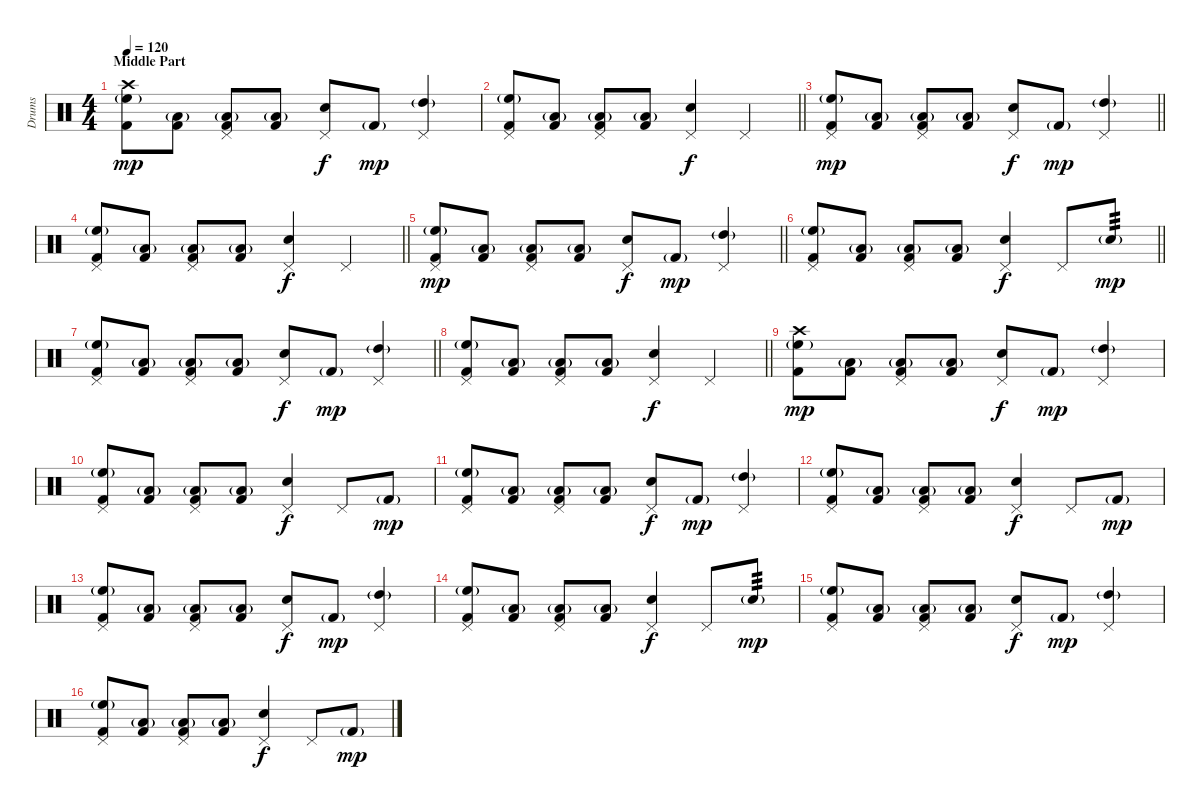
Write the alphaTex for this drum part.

\track ("Drums" "Drums") {instrument percussion}
\staff {score}
\articulation defaults
\ts (4 4)
\section ("" "Middle Part")
\tempo 120
\clef neutral
\ks c
("Crash high (hit)" "High Floor Tom (hit)"{g} "Kick (hit) 2").8{dy mp} ("Low Tom (hit)"{g} "Kick (hit) 2").8 ("Pedal Hi-Hat (hit)" "Low Tom (hit)"{g} "Kick (hit) 2").8 ("Low Tom (hit)"{g} "Kick (hit) 2").8 ("Pedal Hi-Hat (hit)" "Electric Snare (hit)").8{dy f} "Kick (hit) 2"{g}.8{dy mp} ("Pedal Hi-Hat (hit)" "High Tom (hit)"{g}).4 |
\barLineRight lightlight
("Pedal Hi-Hat (hit)" "High Floor Tom (hit)"{g} "Kick (hit) 2").8 ("Low Tom (hit)"{g} "Kick (hit) 2").8 ("Pedal Hi-Hat (hit)" "Low Tom (hit)"{g} "Kick (hit) 2").8 ("Low Tom (hit)"{g} "Kick (hit) 2").8 ("Pedal Hi-Hat (hit)" "Electric Snare (hit)").4{dy f} "Pedal Hi-Hat (hit)".4 |
\barLineRight lightlight
("Pedal Hi-Hat (hit)" "High Floor Tom (hit)"{g} "Kick (hit) 2").8{dy mp} ("Low Tom (hit)"{g} "Kick (hit) 2").8 ("Pedal Hi-Hat (hit)" "Low Tom (hit)"{g} "Kick (hit) 2").8 ("Low Tom (hit)"{g} "Kick (hit) 2").8 ("Pedal Hi-Hat (hit)" "Electric Snare (hit)").8{dy f} "Kick (hit) 2"{g}.8{dy mp} ("Pedal Hi-Hat (hit)" "High Tom (hit)"{g}).4 |
\barLineRight lightlight
("Pedal Hi-Hat (hit)" "High Floor Tom (hit)"{g} "Kick (hit) 2").8 ("Low Tom (hit)"{g} "Kick (hit) 2").8 ("Pedal Hi-Hat (hit)" "Low Tom (hit)"{g} "Kick (hit) 2").8 ("Low Tom (hit)"{g} "Kick (hit) 2").8 ("Pedal Hi-Hat (hit)" "Electric Snare (hit)").4{dy f} "Pedal Hi-Hat (hit)".4 |
\barLineRight lightlight
("Pedal Hi-Hat (hit)" "High Floor Tom (hit)"{g} "Kick (hit) 2").8{dy mp} ("Low Tom (hit)"{g} "Kick (hit) 2").8 ("Pedal Hi-Hat (hit)" "Low Tom (hit)"{g} "Kick (hit) 2").8 ("Low Tom (hit)"{g} "Kick (hit) 2").8 ("Pedal Hi-Hat (hit)" "Electric Snare (hit)").8{dy f} "Kick (hit) 2"{g}.8{dy mp} ("Pedal Hi-Hat (hit)" "High Tom (hit)"{g}).4 |
\barLineRight lightlight
("Pedal Hi-Hat (hit)" "High Floor Tom (hit)"{g} "Kick (hit) 2").8 ("Low Tom (hit)"{g} "Kick (hit) 2").8 ("Pedal Hi-Hat (hit)" "Low Tom (hit)"{g} "Kick (hit) 2").8 ("Low Tom (hit)"{g} "Kick (hit) 2").8 ("Pedal Hi-Hat (hit)" "Electric Snare (hit)").4{dy f} "Pedal Hi-Hat (hit)".8 "Electric Snare (hit)"{g}.8{tp 3 dy mp} |
\barLineRight lightlight
("Pedal Hi-Hat (hit)" "High Floor Tom (hit)"{g} "Kick (hit) 2").8 ("Low Tom (hit)"{g} "Kick (hit) 2").8 ("Pedal Hi-Hat (hit)" "Low Tom (hit)"{g} "Kick (hit) 2").8 ("Low Tom (hit)"{g} "Kick (hit) 2").8 ("Pedal Hi-Hat (hit)" "Electric Snare (hit)").8{dy f} "Kick (hit) 2"{g}.8{dy mp} ("Pedal Hi-Hat (hit)" "High Tom (hit)"{g}).4 |
\barLineRight lightlight
("Pedal Hi-Hat (hit)" "High Floor Tom (hit)"{g} "Kick (hit) 2").8 ("Low Tom (hit)"{g} "Kick (hit) 2").8 ("Pedal Hi-Hat (hit)" "Low Tom (hit)"{g} "Kick (hit) 2").8 ("Low Tom (hit)"{g} "Kick (hit) 2").8 ("Pedal Hi-Hat (hit)" "Electric Snare (hit)").4{dy f} "Pedal Hi-Hat (hit)".4 |
("Crash high (hit)" "High Floor Tom (hit)"{g} "Kick (hit) 2").8{dy mp} ("Low Tom (hit)"{g} "Kick (hit) 2").8 ("Pedal Hi-Hat (hit)" "Low Tom (hit)"{g} "Kick (hit) 2").8 ("Low Tom (hit)"{g} "Kick (hit) 2").8 ("Pedal Hi-Hat (hit)" "Electric Snare (hit)").8{dy f} "Kick (hit) 2"{g}.8{dy mp} ("Pedal Hi-Hat (hit)" "High Tom (hit)"{g}).4 |
("Pedal Hi-Hat (hit)" "High Floor Tom (hit)"{g} "Kick (hit) 2").8 ("Low Tom (hit)"{g} "Kick (hit) 2").8 ("Pedal Hi-Hat (hit)" "Low Tom (hit)"{g} "Kick (hit) 2").8 ("Low Tom (hit)"{g} "Kick (hit) 2").8 ("Pedal Hi-Hat (hit)" "Electric Snare (hit)").4{dy f} "Pedal Hi-Hat (hit)".8 "Kick (hit) 2"{g}.8{dy mp} |
("Pedal Hi-Hat (hit)" "High Floor Tom (hit)"{g} "Kick (hit) 2").8 ("Low Tom (hit)"{g} "Kick (hit) 2").8 ("Pedal Hi-Hat (hit)" "Low Tom (hit)"{g} "Kick (hit) 2").8 ("Low Tom (hit)"{g} "Kick (hit) 2").8 ("Pedal Hi-Hat (hit)" "Electric Snare (hit)").8{dy f} "Kick (hit) 2"{g}.8{dy mp} ("Pedal Hi-Hat (hit)" "High Tom (hit)"{g}).4 |
("Pedal Hi-Hat (hit)" "High Floor Tom (hit)"{g} "Kick (hit) 2").8 ("Low Tom (hit)"{g} "Kick (hit) 2").8 ("Pedal Hi-Hat (hit)" "Low Tom (hit)"{g} "Kick (hit) 2").8 ("Low Tom (hit)"{g} "Kick (hit) 2").8 ("Pedal Hi-Hat (hit)" "Electric Snare (hit)").4{dy f} "Pedal Hi-Hat (hit)".8 "Kick (hit) 2"{g}.8{dy mp} |
("Pedal Hi-Hat (hit)" "High Floor Tom (hit)"{g} "Kick (hit) 2").8 ("Low Tom (hit)"{g} "Kick (hit) 2").8 ("Pedal Hi-Hat (hit)" "Low Tom (hit)"{g} "Kick (hit) 2").8 ("Low Tom (hit)"{g} "Kick (hit) 2").8 ("Pedal Hi-Hat (hit)" "Electric Snare (hit)").8{dy f} "Kick (hit) 2"{g}.8{dy mp} ("Pedal Hi-Hat (hit)" "High Tom (hit)"{g}).4 |
("Pedal Hi-Hat (hit)" "High Floor Tom (hit)"{g} "Kick (hit) 2").8 ("Low Tom (hit)"{g} "Kick (hit) 2").8 ("Pedal Hi-Hat (hit)" "Low Tom (hit)"{g} "Kick (hit) 2").8 ("Low Tom (hit)"{g} "Kick (hit) 2").8 ("Pedal Hi-Hat (hit)" "Electric Snare (hit)").4{dy f} "Pedal Hi-Hat (hit)".8 "Electric Snare (hit)"{g}.8{tp 3 dy mp} |
("Pedal Hi-Hat (hit)" "High Floor Tom (hit)"{g} "Kick (hit) 2").8 ("Low Tom (hit)"{g} "Kick (hit) 2").8 ("Pedal Hi-Hat (hit)" "Low Tom (hit)"{g} "Kick (hit) 2").8 ("Low Tom (hit)"{g} "Kick (hit) 2").8 ("Pedal Hi-Hat (hit)" "Electric Snare (hit)").8{dy f} "Kick (hit) 2"{g}.8{dy mp} ("Pedal Hi-Hat (hit)" "High Tom (hit)"{g}).4 |
("Pedal Hi-Hat (hit)" "High Floor Tom (hit)"{g} "Kick (hit) 2").8 ("Low Tom (hit)"{g} "Kick (hit) 2").8 ("Pedal Hi-Hat (hit)" "Low Tom (hit)"{g} "Kick (hit) 2").8 ("Low Tom (hit)"{g} "Kick (hit) 2").8 ("Pedal Hi-Hat (hit)" "Electric Snare (hit)").4{dy f} "Pedal Hi-Hat (hit)".8 "Kick (hit) 2"{g}.8{dy mp}
